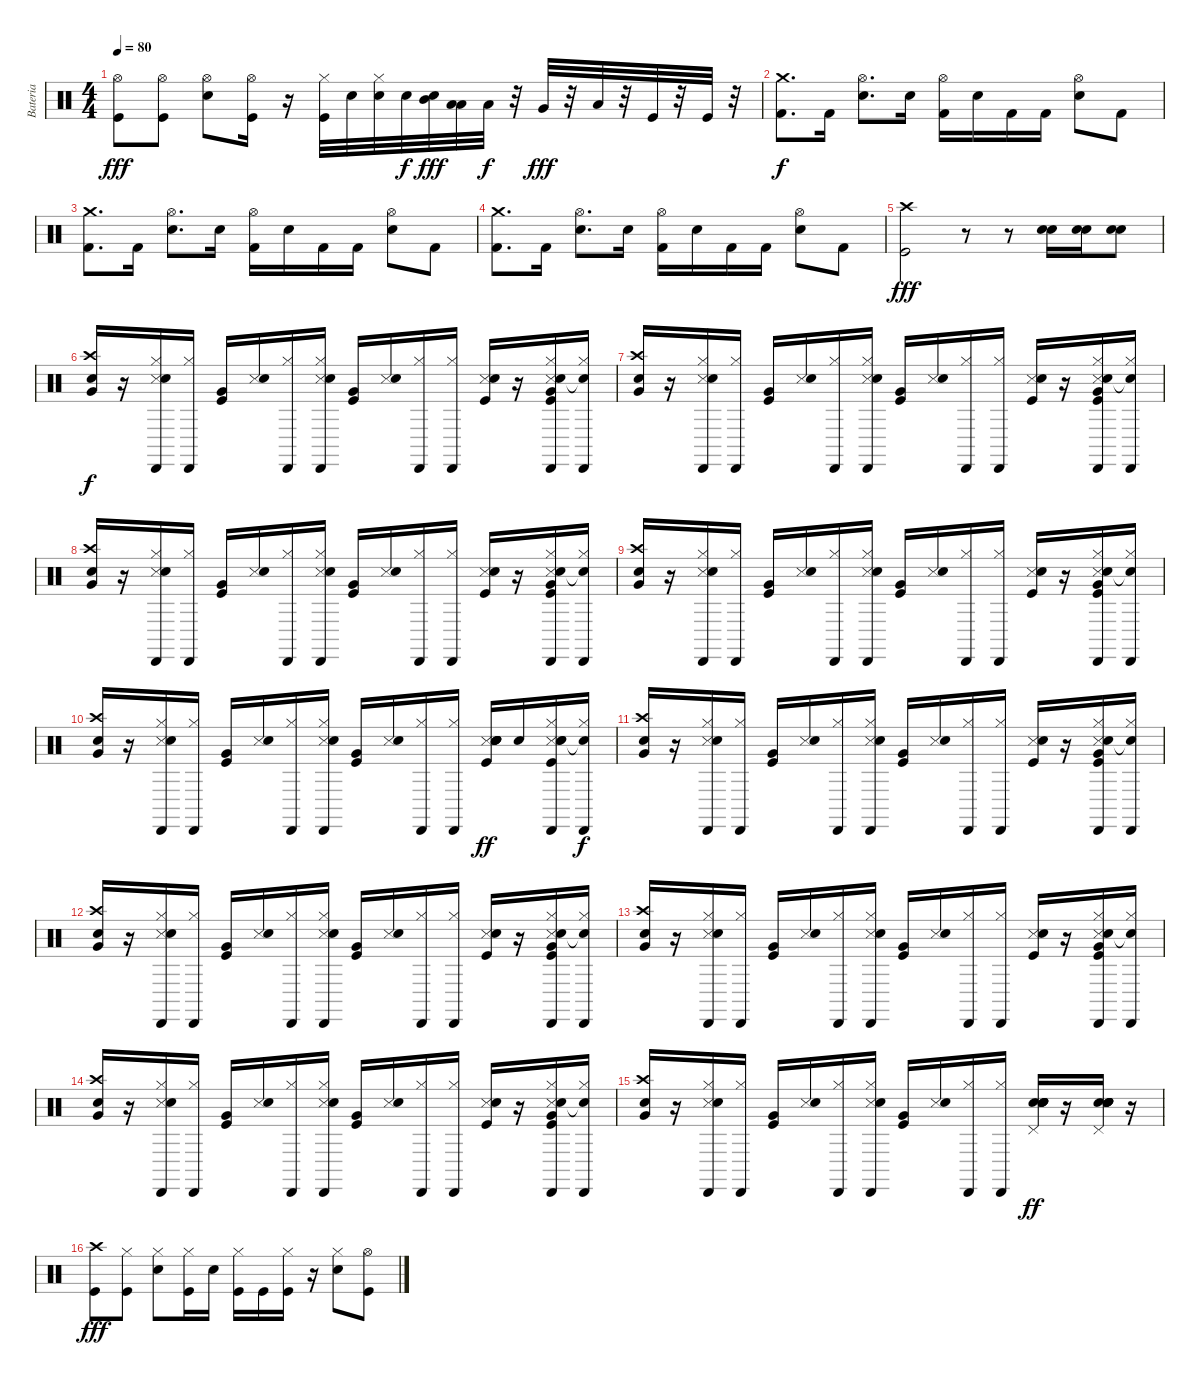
\track ("Bateria" "Bateria") {instrument percussion}
\staff {score}
\articulation defaults
\ts (4 4)
\tempo 80
\clef neutral
\ks c
("Kick (hit)" "Hi-Hat (open)").8{dy fff} ("Kick (hit)" "Hi-Hat (open)").8 ("Snare (hit) 2" "Hi-Hat (open)").8 ("Kick (hit)" "Hi-Hat (open)").16 r.16 ("Kick (hit)" "Hi-Hat (closed)").32 "Snare (hit) 2".32 ("Snare (hit) 2" "Hi-Hat (closed)").32 "Snare (hit) 2".32{dy f} ("Snare (hit) 2" "Mid Tom (hit)").32{dy fff} ("Low Tom (hit)" "Low Tom (hit)").32 "Low Tom (hit)".32{dy f} r.32 "Very Low Tom (hit)".32{dy fff} r.32 "Low Floor Tom (hit)".32 r.32 "Kick (hit)".32 r.32 "Kick (hit)".32 r.32 |
("Crash medium (hit)" "Kick (hit) 2").8{d dy f} "Kick (hit) 2".16 ("Hi-Hat (open)" "Electric Snare (hit)").8{d} "Electric Snare (hit)".16 ("Hi-Hat (open)" "Kick (hit) 2").16 "Electric Snare (hit)".16 "Kick (hit) 2".16 "Kick (hit) 2".16 ("Hi-Hat (open)" "Electric Snare (hit)").8 "Kick (hit) 2".8 |
("Crash medium (hit)" "Kick (hit) 2").8{d} "Kick (hit) 2".16 ("Hi-Hat (open)" "Electric Snare (hit)").8{d} "Electric Snare (hit)".16 ("Hi-Hat (open)" "Kick (hit) 2").16 "Electric Snare (hit)".16 "Kick (hit) 2".16 "Kick (hit) 2".16 ("Hi-Hat (open)" "Electric Snare (hit)").8 "Kick (hit) 2".8 |
("Crash medium (hit)" "Kick (hit) 2").8{d} "Kick (hit) 2".16 ("Hi-Hat (open)" "Electric Snare (hit)").8{d} "Electric Snare (hit)".16 ("Hi-Hat (open)" "Kick (hit) 2").16 "Electric Snare (hit)".16 "Kick (hit) 2".16 "Kick (hit) 2".16 ("Hi-Hat (open)" "Electric Snare (hit)").8 "Kick (hit) 2".8 |
("Kick (hit)" "Crash high (hit)").2{dy fff} r.8 r.8 ("Snare (hit) 2" "Electric Snare (hit)").16 ("Snare (hit) 2" "Electric Snare (hit)").16 ("Snare (hit) 2" "Electric Snare (hit)").8 |
("Crash high (hit)" "Snare (hit) 2" "Very Low Tom (hit)").16{dy f} r.16 ("Snare (side stick) 3" "Electric Snare (hit)" "Hi-Hat (closed)" "Cabasa (hit)").16 ("Hi-Hat (closed)" "Cabasa (hit)").16 ("Kick (hit)" "Very Low Tom (hit)").16 ("Snare (side stick) 3" "Electric Snare (hit)").16 ("Hi-Hat (closed)" "Cabasa (hit)").16 ("Snare (side stick) 3" "Electric Snare (hit)" "Hi-Hat (closed)" "Cabasa (hit)").16 ("Kick (hit)" "Very Low Tom (hit)").16 ("Snare (side stick) 3" "Electric Snare (hit)").16 ("Hi-Hat (closed)" "Cabasa (hit)").16 ("Hi-Hat (closed)" "Cabasa (hit)").16 ("Kick (hit)" "Snare (side stick) 3" "Electric Snare (hit)").16 r.16 ("Snare (side stick) 3" "Kick (hit)" "Electric Snare (hit)" "Very Low Tom (hit)" "Hi-Hat (closed)" "Cabasa (hit)").16 ("Electric Snare (hit)"{t} "Hi-Hat (closed)" "Cabasa (hit)").16 |
("Crash high (hit)" "Snare (hit) 2" "Very Low Tom (hit)").16 r.16 ("Snare (side stick) 3" "Electric Snare (hit)" "Hi-Hat (closed)" "Cabasa (hit)").16 ("Hi-Hat (closed)" "Cabasa (hit)").16 ("Kick (hit)" "Very Low Tom (hit)").16 ("Snare (side stick) 3" "Electric Snare (hit)").16 ("Hi-Hat (closed)" "Cabasa (hit)").16 ("Snare (side stick) 3" "Electric Snare (hit)" "Hi-Hat (closed)" "Cabasa (hit)").16 ("Kick (hit)" "Very Low Tom (hit)").16 ("Snare (side stick) 3" "Electric Snare (hit)").16 ("Hi-Hat (closed)" "Cabasa (hit)").16 ("Hi-Hat (closed)" "Cabasa (hit)").16 ("Kick (hit)" "Snare (side stick) 3" "Electric Snare (hit)").16 r.16 ("Snare (side stick) 3" "Kick (hit)" "Electric Snare (hit)" "Very Low Tom (hit)" "Hi-Hat (closed)" "Cabasa (hit)").16 ("Electric Snare (hit)"{t} "Hi-Hat (closed)" "Cabasa (hit)").16 |
("Crash high (hit)" "Snare (hit) 2" "Very Low Tom (hit)").16 r.16 ("Snare (side stick) 3" "Electric Snare (hit)" "Hi-Hat (closed)" "Cabasa (hit)").16 ("Hi-Hat (closed)" "Cabasa (hit)").16 ("Kick (hit)" "Very Low Tom (hit)").16 ("Snare (side stick) 3" "Electric Snare (hit)").16 ("Hi-Hat (closed)" "Cabasa (hit)").16 ("Snare (side stick) 3" "Electric Snare (hit)" "Hi-Hat (closed)" "Cabasa (hit)").16 ("Kick (hit)" "Very Low Tom (hit)").16 ("Snare (side stick) 3" "Electric Snare (hit)").16 ("Hi-Hat (closed)" "Cabasa (hit)").16 ("Hi-Hat (closed)" "Cabasa (hit)").16 ("Kick (hit)" "Snare (side stick) 3" "Electric Snare (hit)").16 r.16 ("Snare (side stick) 3" "Kick (hit)" "Electric Snare (hit)" "Very Low Tom (hit)" "Hi-Hat (closed)" "Cabasa (hit)").16 ("Electric Snare (hit)"{t} "Hi-Hat (closed)" "Cabasa (hit)").16 |
("Crash high (hit)" "Snare (hit) 2" "Very Low Tom (hit)").16 r.16 ("Snare (side stick) 3" "Electric Snare (hit)" "Hi-Hat (closed)" "Cabasa (hit)").16 ("Hi-Hat (closed)" "Cabasa (hit)").16 ("Kick (hit)" "Very Low Tom (hit)").16 ("Snare (side stick) 3" "Electric Snare (hit)").16 ("Hi-Hat (closed)" "Cabasa (hit)").16 ("Snare (side stick) 3" "Electric Snare (hit)" "Hi-Hat (closed)" "Cabasa (hit)").16 ("Kick (hit)" "Very Low Tom (hit)").16 ("Snare (side stick) 3" "Electric Snare (hit)").16 ("Hi-Hat (closed)" "Cabasa (hit)").16 ("Hi-Hat (closed)" "Cabasa (hit)").16 ("Kick (hit)" "Snare (side stick) 3" "Electric Snare (hit)").16 r.16 ("Snare (side stick) 3" "Kick (hit)" "Electric Snare (hit)" "Very Low Tom (hit)" "Hi-Hat (closed)" "Cabasa (hit)").16 ("Electric Snare (hit)"{t} "Hi-Hat (closed)" "Cabasa (hit)").16 |
("Crash high (hit)" "Snare (hit) 2" "Very Low Tom (hit)").16 r.16 ("Snare (side stick) 3" "Electric Snare (hit)" "Hi-Hat (closed)" "Cabasa (hit)").16 ("Hi-Hat (closed)" "Cabasa (hit)").16 ("Kick (hit)" "Very Low Tom (hit)").16 ("Snare (side stick) 3" "Electric Snare (hit)").16 ("Hi-Hat (closed)" "Cabasa (hit)").16 ("Snare (side stick) 3" "Electric Snare (hit)" "Hi-Hat (closed)" "Cabasa (hit)").16 ("Kick (hit)" "Very Low Tom (hit)").16 ("Snare (side stick) 3" "Electric Snare (hit)").16 ("Hi-Hat (closed)" "Cabasa (hit)").16 ("Hi-Hat (closed)" "Cabasa (hit)").16 ("Kick (hit)" "Snare (side stick) 3" "Electric Snare (hit)" "Snare (hit) 2" "Snare (hit) 2" "Snare (hit) 2").16{dy ff} "Snare (hit) 2".16 ("Snare (side stick) 3" "Kick (hit)" "Electric Snare (hit)" "Snare (hit) 2" "Hi-Hat (closed)" "Cabasa (hit)").16 ("Electric Snare (hit)"{t} "Hi-Hat (closed)" "Cabasa (hit)").16{dy f} |
("Crash high (hit)" "Snare (hit) 2" "Very Low Tom (hit)").16 r.16 ("Snare (side stick) 3" "Electric Snare (hit)" "Hi-Hat (closed)" "Cabasa (hit)").16 ("Hi-Hat (closed)" "Cabasa (hit)").16 ("Kick (hit)" "Very Low Tom (hit)").16 ("Snare (side stick) 3" "Electric Snare (hit)").16 ("Hi-Hat (closed)" "Cabasa (hit)").16 ("Snare (side stick) 3" "Electric Snare (hit)" "Hi-Hat (closed)" "Cabasa (hit)").16 ("Kick (hit)" "Very Low Tom (hit)").16 ("Snare (side stick) 3" "Electric Snare (hit)").16 ("Hi-Hat (closed)" "Cabasa (hit)").16 ("Hi-Hat (closed)" "Cabasa (hit)").16 ("Kick (hit)" "Snare (side stick) 3" "Electric Snare (hit)").16 r.16 ("Snare (side stick) 3" "Kick (hit)" "Electric Snare (hit)" "Very Low Tom (hit)" "Hi-Hat (closed)" "Cabasa (hit)").16 ("Electric Snare (hit)"{t} "Hi-Hat (closed)" "Cabasa (hit)").16 |
("Crash high (hit)" "Snare (hit) 2" "Very Low Tom (hit)").16 r.16 ("Snare (side stick) 3" "Electric Snare (hit)" "Hi-Hat (closed)" "Cabasa (hit)").16 ("Hi-Hat (closed)" "Cabasa (hit)").16 ("Kick (hit)" "Very Low Tom (hit)").16 ("Snare (side stick) 3" "Electric Snare (hit)").16 ("Hi-Hat (closed)" "Cabasa (hit)").16 ("Snare (side stick) 3" "Electric Snare (hit)" "Hi-Hat (closed)" "Cabasa (hit)").16 ("Kick (hit)" "Very Low Tom (hit)").16 ("Snare (side stick) 3" "Electric Snare (hit)").16 ("Hi-Hat (closed)" "Cabasa (hit)").16 ("Hi-Hat (closed)" "Cabasa (hit)").16 ("Kick (hit)" "Snare (side stick) 3" "Electric Snare (hit)").16 r.16 ("Snare (side stick) 3" "Kick (hit)" "Electric Snare (hit)" "Very Low Tom (hit)" "Hi-Hat (closed)" "Cabasa (hit)").16 ("Electric Snare (hit)"{t} "Hi-Hat (closed)" "Cabasa (hit)").16 |
("Crash high (hit)" "Snare (hit) 2" "Very Low Tom (hit)").16 r.16 ("Snare (side stick) 3" "Electric Snare (hit)" "Hi-Hat (closed)" "Cabasa (hit)").16 ("Hi-Hat (closed)" "Cabasa (hit)").16 ("Kick (hit)" "Very Low Tom (hit)").16 ("Snare (side stick) 3" "Electric Snare (hit)").16 ("Hi-Hat (closed)" "Cabasa (hit)").16 ("Snare (side stick) 3" "Electric Snare (hit)" "Hi-Hat (closed)" "Cabasa (hit)").16 ("Kick (hit)" "Very Low Tom (hit)").16 ("Snare (side stick) 3" "Electric Snare (hit)").16 ("Hi-Hat (closed)" "Cabasa (hit)").16 ("Hi-Hat (closed)" "Cabasa (hit)").16 ("Kick (hit)" "Snare (side stick) 3" "Electric Snare (hit)").16 r.16 ("Snare (side stick) 3" "Kick (hit)" "Electric Snare (hit)" "Very Low Tom (hit)" "Hi-Hat (closed)" "Cabasa (hit)").16 ("Electric Snare (hit)"{t} "Hi-Hat (closed)" "Cabasa (hit)").16 |
("Crash high (hit)" "Snare (hit) 2" "Very Low Tom (hit)").16 r.16 ("Snare (side stick) 3" "Electric Snare (hit)" "Hi-Hat (closed)" "Cabasa (hit)").16 ("Hi-Hat (closed)" "Cabasa (hit)").16 ("Kick (hit)" "Very Low Tom (hit)").16 ("Snare (side stick) 3" "Electric Snare (hit)").16 ("Hi-Hat (closed)" "Cabasa (hit)").16 ("Snare (side stick) 3" "Electric Snare (hit)" "Hi-Hat (closed)" "Cabasa (hit)").16 ("Kick (hit)" "Very Low Tom (hit)").16 ("Snare (side stick) 3" "Electric Snare (hit)").16 ("Hi-Hat (closed)" "Cabasa (hit)").16 ("Hi-Hat (closed)" "Cabasa (hit)").16 ("Kick (hit)" "Snare (side stick) 3" "Electric Snare (hit)").16 r.16 ("Snare (side stick) 3" "Kick (hit)" "Electric Snare (hit)" "Very Low Tom (hit)" "Hi-Hat (closed)" "Cabasa (hit)").16 ("Electric Snare (hit)"{t} "Hi-Hat (closed)" "Cabasa (hit)").16 |
("Crash high (hit)" "Snare (hit) 2" "Very Low Tom (hit)").16 r.16 ("Snare (side stick) 3" "Electric Snare (hit)" "Hi-Hat (closed)" "Cabasa (hit)").16 ("Hi-Hat (closed)" "Cabasa (hit)").16 ("Kick (hit)" "Very Low Tom (hit)").16 ("Snare (side stick) 3" "Electric Snare (hit)").16 ("Hi-Hat (closed)" "Cabasa (hit)").16 ("Snare (side stick) 3" "Electric Snare (hit)" "Hi-Hat (closed)" "Cabasa (hit)").16 ("Kick (hit)" "Very Low Tom (hit)").16 ("Snare (side stick) 3" "Electric Snare (hit)").16 ("Hi-Hat (closed)" "Cabasa (hit)").16 ("Hi-Hat (closed)" "Cabasa (hit)").16 ("Pedal Hi-Hat (hit)" "Snare (hit) 2" "Snare (hit) 2" "Snare (hit) 2" "Snare (hit) 2" "Snare (hit) 2").16{dy ff} r.16 ("Pedal Hi-Hat (hit)" "Snare (hit) 2" "Snare (hit) 2" "Snare (hit) 2" "Snare (hit) 2" "Snare (hit) 2").16 r.16 |
("Kick (hit)" "Crash high (hit)").8{dy fff} ("Kick (hit)" "Hi-Hat (closed)").8 ("Snare (hit) 2" "Hi-Hat (closed)").8 ("Kick (hit)" "Hi-Hat (closed)").16 "Snare (hit) 2".16 ("Kick (hit)" "Hi-Hat (closed)").16 "Kick (hit)".16 ("Kick (hit)" "Hi-Hat (closed)").16 r.16 ("Snare (hit) 2" "Hi-Hat (closed)").8 ("Kick (hit)" "Hi-Hat (open)").8
